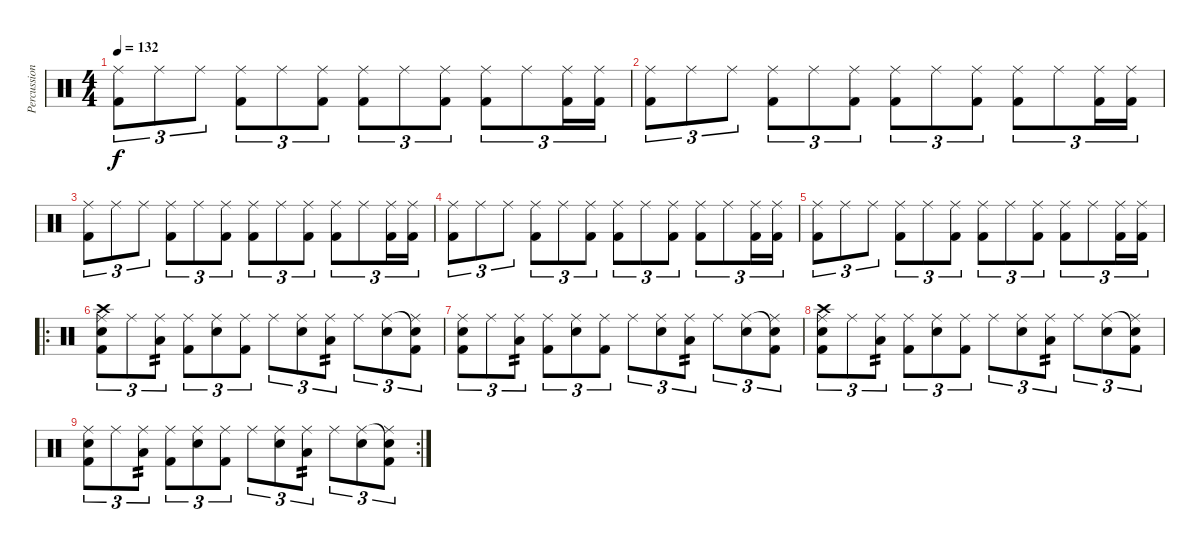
\track ("Percussions" "Percussion") {instrument percussion}
\staff {score}
\articulation defaults
\ts (4 4)
\tempo 132
\clef neutral
\ks c
("Ride (middle)" "Kick (hit) 2").8{tu (3 2) dy f} "Ride (middle)".8{tu (3 2)} "Ride (middle)".8{tu (3 2)} ("Ride (middle)" "Kick (hit) 2").8{tu (3 2)} "Ride (middle)".8{tu (3 2)} ("Ride (middle)" "Kick (hit) 2").8{tu (3 2)} ("Ride (middle)" "Kick (hit) 2").8{tu (3 2)} "Ride (middle)".8{tu (3 2)} ("Ride (middle)" "Kick (hit) 2").8{tu (3 2)} ("Ride (middle)" "Kick (hit) 2").8{tu (3 2)} "Ride (middle)".8{tu (3 2)} ("Ride (middle)" "Kick (hit) 2").16{tu (3 2)} ("Ride (middle)" "Kick (hit) 2").16{tu (3 2)} |
("Ride (middle)" "Kick (hit) 2").8{tu (3 2)} "Ride (middle)".8{tu (3 2)} "Ride (middle)".8{tu (3 2)} ("Ride (middle)" "Kick (hit) 2").8{tu (3 2)} "Ride (middle)".8{tu (3 2)} ("Ride (middle)" "Kick (hit) 2").8{tu (3 2)} ("Ride (middle)" "Kick (hit) 2").8{tu (3 2)} "Ride (middle)".8{tu (3 2)} ("Ride (middle)" "Kick (hit) 2").8{tu (3 2)} ("Ride (middle)" "Kick (hit) 2").8{tu (3 2)} "Ride (middle)".8{tu (3 2)} ("Ride (middle)" "Kick (hit) 2").16{tu (3 2)} ("Ride (middle)" "Kick (hit) 2").16{tu (3 2)} |
("Ride (middle)" "Kick (hit) 2").8{tu (3 2)} "Ride (middle)".8{tu (3 2)} "Ride (middle)".8{tu (3 2)} ("Ride (middle)" "Kick (hit) 2").8{tu (3 2)} "Ride (middle)".8{tu (3 2)} ("Ride (middle)" "Kick (hit) 2").8{tu (3 2)} ("Ride (middle)" "Kick (hit) 2").8{tu (3 2)} "Ride (middle)".8{tu (3 2)} ("Ride (middle)" "Kick (hit) 2").8{tu (3 2)} ("Ride (middle)" "Kick (hit) 2").8{tu (3 2)} "Ride (middle)".8{tu (3 2)} ("Ride (middle)" "Kick (hit) 2").16{tu (3 2)} ("Ride (middle)" "Kick (hit) 2").16{tu (3 2)} |
("Ride (middle)" "Kick (hit) 2").8{tu (3 2)} "Ride (middle)".8{tu (3 2)} "Ride (middle)".8{tu (3 2)} ("Ride (middle)" "Kick (hit) 2").8{tu (3 2)} "Ride (middle)".8{tu (3 2)} ("Ride (middle)" "Kick (hit) 2").8{tu (3 2)} ("Ride (middle)" "Kick (hit) 2").8{tu (3 2)} "Ride (middle)".8{tu (3 2)} ("Ride (middle)" "Kick (hit) 2").8{tu (3 2)} ("Ride (middle)" "Kick (hit) 2").8{tu (3 2)} "Ride (middle)".8{tu (3 2)} ("Ride (middle)" "Kick (hit) 2").16{tu (3 2)} ("Ride (middle)" "Kick (hit) 2").16{tu (3 2)} |
("Ride (middle)" "Kick (hit) 2").8{tu (3 2)} "Ride (middle)".8{tu (3 2)} "Ride (middle)".8{tu (3 2)} ("Ride (middle)" "Kick (hit) 2").8{tu (3 2)} "Ride (middle)".8{tu (3 2)} ("Ride (middle)" "Kick (hit) 2").8{tu (3 2)} ("Ride (middle)" "Kick (hit) 2").8{tu (3 2)} "Ride (middle)".8{tu (3 2)} ("Ride (middle)" "Kick (hit) 2").8{tu (3 2)} ("Ride (middle)" "Kick (hit) 2").8{tu (3 2)} "Ride (middle)".8{tu (3 2)} ("Ride (middle)" "Kick (hit) 2").16{tu (3 2)} ("Ride (middle)" "Kick (hit) 2").16{tu (3 2)} |
\ro
("Crash high (hit)" "Ride (middle)" "Snare (hit) 2" "Kick (hit) 2").8{tu (3 2)} "Ride (middle)".8{tu (3 2)} ("Ride (middle)" "Low Floor Tom (hit)").8{tu (3 2) tp 2} ("Ride (middle)" "Kick (hit) 2").8{tu (3 2)} ("Ride (middle)" "Snare (hit) 2").8{tu (3 2)} ("Ride (middle)" "Kick (hit) 2").8{tu (3 2)} "Ride (middle)".8{tu (3 2)} ("Ride (middle)" "Snare (hit) 2").8{tu (3 2)} ("Ride (middle)" "Low Floor Tom (hit)").8{tu (3 2) tp 2} "Ride (middle)".8{tu (3 2)} ("Ride (middle)" "Snare (hit) 2").8{tu (3 2)} ("Snare (hit)"{t} "Ride (middle)" "Kick (hit) 2").8{tu (3 2)} |
("Ride (middle)" "Snare (hit) 2" "Kick (hit) 2").8{tu (3 2)} "Ride (middle)".8{tu (3 2)} ("Ride (middle)" "Low Floor Tom (hit)").8{tu (3 2) tp 2} ("Ride (middle)" "Kick (hit) 2").8{tu (3 2)} ("Ride (middle)" "Snare (hit) 2").8{tu (3 2)} ("Ride (middle)" "Kick (hit) 2").8{tu (3 2)} "Ride (middle)".8{tu (3 2)} ("Ride (middle)" "Snare (hit) 2").8{tu (3 2)} ("Ride (middle)" "Low Floor Tom (hit)").8{tu (3 2) tp 2} "Ride (middle)".8{tu (3 2)} ("Ride (middle)" "Snare (hit) 2").8{tu (3 2)} ("Snare (hit)"{t} "Ride (middle)" "Kick (hit) 2").8{tu (3 2)} |
("Crash high (hit)" "Ride (middle)" "Snare (hit) 2" "Kick (hit) 2").8{tu (3 2)} "Ride (middle)".8{tu (3 2)} ("Ride (middle)" "Low Floor Tom (hit)").8{tu (3 2) tp 2} ("Ride (middle)" "Kick (hit) 2").8{tu (3 2)} ("Ride (middle)" "Snare (hit) 2").8{tu (3 2)} ("Ride (middle)" "Kick (hit) 2").8{tu (3 2)} "Ride (middle)".8{tu (3 2)} ("Ride (middle)" "Snare (hit) 2").8{tu (3 2)} ("Ride (middle)" "Low Floor Tom (hit)").8{tu (3 2) tp 2} "Ride (middle)".8{tu (3 2)} ("Ride (middle)" "Snare (hit) 2").8{tu (3 2)} ("Snare (hit)"{t} "Ride (middle)" "Kick (hit) 2").8{tu (3 2)} |
\rc 2
("Ride (middle)" "Snare (hit) 2" "Kick (hit) 2").8{tu (3 2)} "Ride (middle)".8{tu (3 2)} ("Ride (middle)" "Low Floor Tom (hit)").8{tu (3 2) tp 2} ("Ride (middle)" "Kick (hit) 2").8{tu (3 2)} ("Ride (middle)" "Snare (hit) 2").8{tu (3 2)} ("Ride (middle)" "Kick (hit) 2").8{tu (3 2)} "Ride (middle)".8{tu (3 2)} ("Ride (middle)" "Snare (hit) 2").8{tu (3 2)} ("Ride (middle)" "Low Floor Tom (hit)").8{tu (3 2) tp 2} "Ride (middle)".8{tu (3 2)} ("Ride (middle)" "Snare (hit) 2").8{tu (3 2)} ("Snare (hit)"{t} "Ride (middle)" "Kick (hit) 2").8{tu (3 2)}
